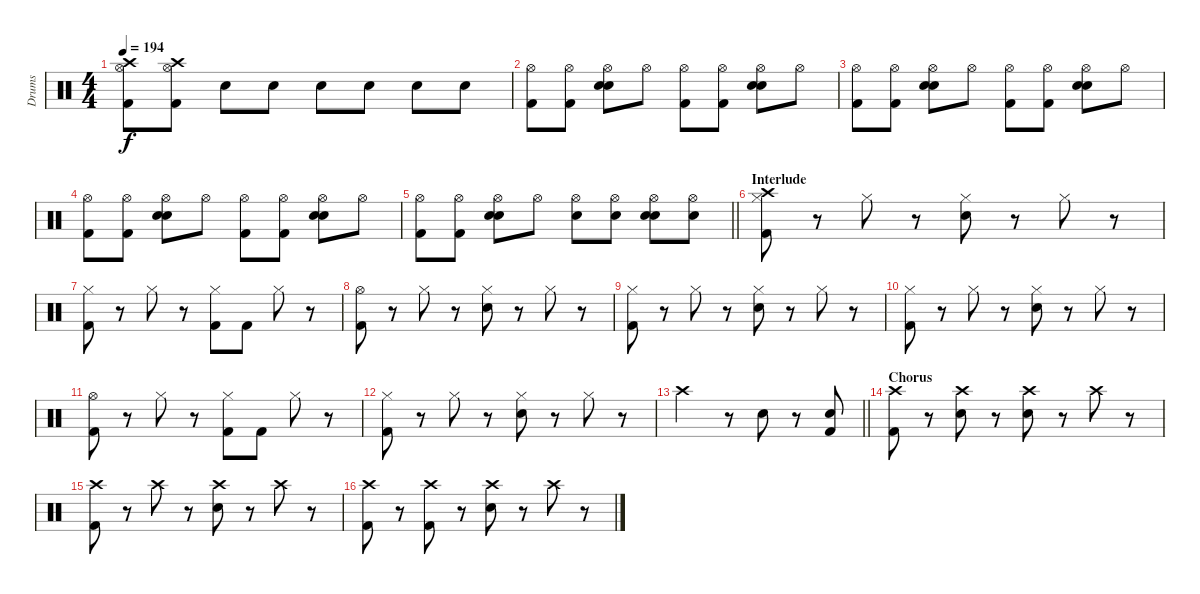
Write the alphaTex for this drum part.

\track ("Drums" "Drums") {solo instrument percussion}
\staff {score}
\articulation defaults
\ts (4 4)
\tempo 194
\clef neutral
\ks c
("Hi-Hat (open)" "Crash high (hit)" "Kick (hit) 2").8{dy f} ("Hi-Hat (open)" "Crash high (hit)" "Kick (hit) 2").8 "Snare (hit) 2".8 "Snare (hit) 2".8 "Snare (hit) 2".8 "Snare (hit) 2".8 "Snare (hit) 2".8 "Snare (hit) 2".8 |
("Hi-Hat (open)" "Kick (hit) 2").8 ("Hi-Hat (open)" "Kick (hit) 2").8 ("Hi-Hat (open)" "Electric Snare (hit)" "Snare (hit) 2").8 "Hi-Hat (open)".8 ("Hi-Hat (open)" "Kick (hit) 2").8 ("Hi-Hat (open)" "Kick (hit) 2").8 ("Hi-Hat (open)" "Electric Snare (hit)" "Snare (hit) 2").8 "Hi-Hat (open)".8 |
("Hi-Hat (open)" "Kick (hit) 2").8 ("Hi-Hat (open)" "Kick (hit) 2").8 ("Hi-Hat (open)" "Electric Snare (hit)" "Snare (hit) 2").8 "Hi-Hat (open)".8 ("Hi-Hat (open)" "Kick (hit) 2").8 ("Hi-Hat (open)" "Kick (hit) 2").8 ("Hi-Hat (open)" "Electric Snare (hit)" "Snare (hit) 2").8 "Hi-Hat (open)".8 |
("Hi-Hat (open)" "Kick (hit) 2").8 ("Hi-Hat (open)" "Kick (hit) 2").8 ("Hi-Hat (open)" "Electric Snare (hit)" "Snare (hit) 2").8 "Hi-Hat (open)".8 ("Hi-Hat (open)" "Kick (hit) 2").8 ("Hi-Hat (open)" "Kick (hit) 2").8 ("Hi-Hat (open)" "Electric Snare (hit)" "Snare (hit) 2").8 "Hi-Hat (open)".8 |
\barLineRight lightlight
("Hi-Hat (open)" "Kick (hit) 2").8 ("Hi-Hat (open)" "Kick (hit) 2").8 ("Hi-Hat (open)" "Electric Snare (hit)" "Snare (hit) 2").8 "Hi-Hat (open)".8 ("Hi-Hat (open)" "Snare (hit) 2").8 ("Hi-Hat (open)" "Snare (hit) 2").8 ("Hi-Hat (open)" "Electric Snare (hit)" "Snare (hit) 2").8 ("Hi-Hat (open)" "Snare (hit) 2").8 |
\section ("" "Interlude")
("Hi-Hat (closed)" "Crash high (hit)" "Kick (hit) 2").8 r.8 "Hi-Hat (closed)".8 r.8 ("Hi-Hat (closed)" "Snare (hit) 2").8 r.8 "Hi-Hat (closed)".8 r.8 |
("Hi-Hat (closed)" "Kick (hit) 2").8 r.8 "Hi-Hat (closed)".8 r.8 ("Hi-Hat (closed)" "Kick (hit) 2").8 "Kick (hit) 2".8 "Hi-Hat (closed)".8 r.8 |
("Hi-Hat (open)" "Kick (hit) 2").8 r.8 "Hi-Hat (closed)".8 r.8 ("Hi-Hat (closed)" "Snare (hit) 2").8 r.8 "Hi-Hat (closed)".8 r.8 |
("Hi-Hat (closed)" "Kick (hit) 2").8 r.8 "Hi-Hat (closed)".8 r.8 ("Hi-Hat (closed)" "Snare (hit) 2").8 r.8 "Hi-Hat (closed)".8 r.8 |
("Hi-Hat (closed)" "Kick (hit) 2").8 r.8 "Hi-Hat (closed)".8 r.8 ("Hi-Hat (closed)" "Snare (hit) 2").8 r.8 "Hi-Hat (closed)".8 r.8 |
("Hi-Hat (open)" "Kick (hit) 2").8 r.8 "Hi-Hat (closed)".8 r.8 ("Hi-Hat (closed)" "Kick (hit) 2").8 "Kick (hit) 2".8 "Hi-Hat (closed)".8 r.8 |
("Hi-Hat (closed)" "Kick (hit) 2").8 r.8 "Hi-Hat (closed)".8 r.8 ("Hi-Hat (closed)" "Snare (hit) 2").8 r.8 "Hi-Hat (closed)".8 r.8 |
\barLineRight lightlight "Crash high (hit)".2
r.8 "Snare (hit) 2".8 r.8 ("Snare (hit) 2" "Kick (hit) 2").8 |
\section ("" "Chorus")
("Crash high (hit)" "Kick (hit) 2").8 r.8 ("Crash high (hit)" "Snare (hit) 2").8 r.8 ("Crash high (hit)" "Snare (hit) 2").8 r.8 "Crash high (hit)".8 r.8 |
("Crash high (hit)" "Kick (hit) 2").8 r.8 "Crash high (hit)".8 r.8 ("Crash high (hit)" "Snare (hit) 2").8 r.8 "Crash high (hit)".8 r.8 |
("Crash high (hit)" "Kick (hit) 2").8 r.8 ("Crash high (hit)" "Kick (hit) 2").8 r.8 ("Crash high (hit)" "Snare (hit) 2").8 r.8 "Crash high (hit)".8 r.8
